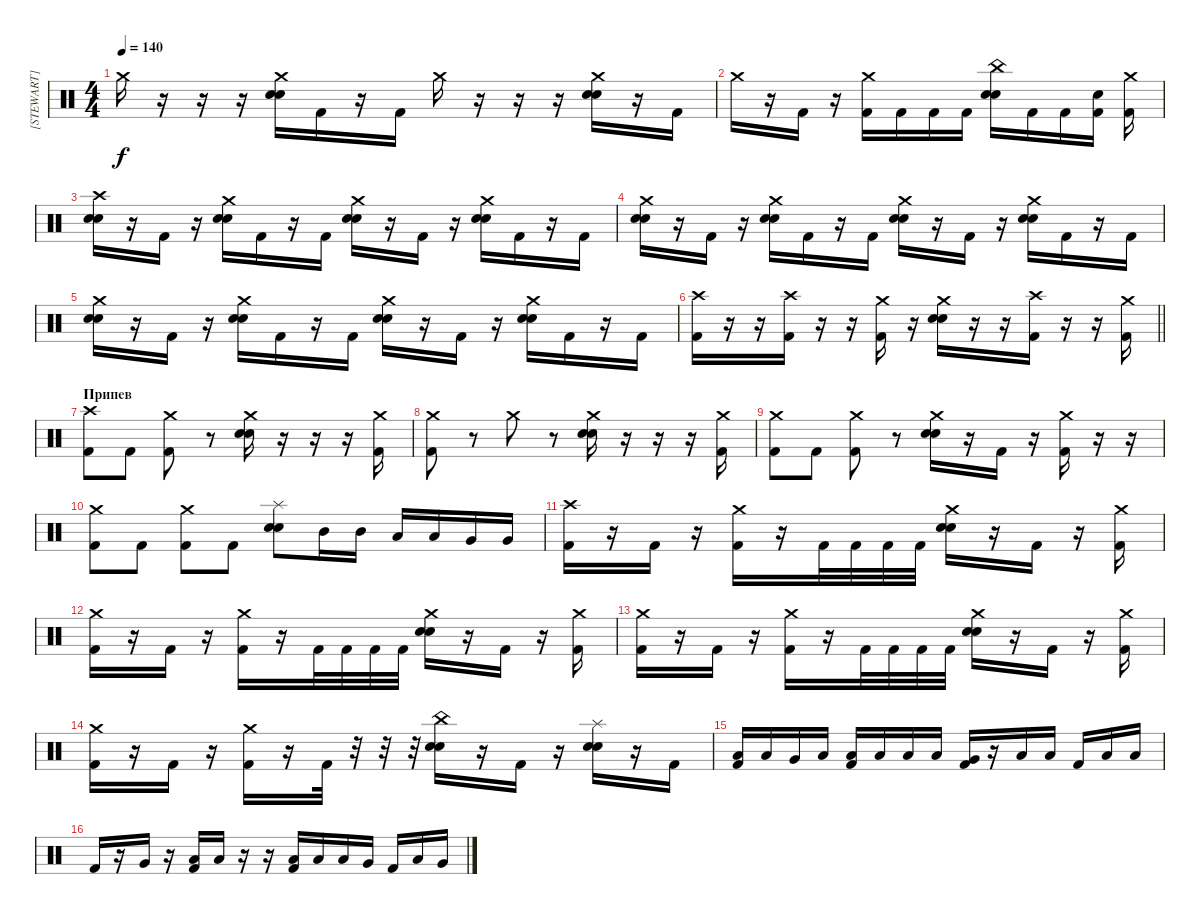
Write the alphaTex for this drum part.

\track ("[STEWART]" "[STEWART]") {instrument percussion}
\staff {score}
\articulation defaults
\ts (4 4)
\tempo 140
\clef neutral
\ks c "Crash medium (hit)".16{dy f}
r.16 r.16 r.16 ("Crash medium (hit)" "Electric Snare (hit)" "Snare (hit) 2").16 "Kick (hit) 2".16 r.16 "Kick (hit) 2".16 "Crash medium (hit)".16 r.16 r.16 r.16 ("Crash medium (hit)" "Electric Snare (hit)" "Snare (hit) 2").16 r.16 "Kick (hit) 2".16 |
"Crash medium (hit)".16 r.16 "Kick (hit) 2".16 r.16 ("Crash medium (hit)" "Kick (hit) 2").16 "Kick (hit) 2".16 "Kick (hit) 2".16 "Kick (hit) 2".16 ("China (hit)" "Electric Snare (hit)" "Snare (hit) 2").16 "Kick (hit) 2".16 "Kick (hit) 2".16 ("Snare (hit) 2" "Kick (hit) 2").16 ("Crash medium (hit)" "Kick (hit) 2").16 |
("Crash high (hit)" "Electric Snare (hit)" "Snare (hit) 2").16 r.16 "Kick (hit) 2".16 r.16 ("Crash medium (hit)" "Electric Snare (hit)" "Snare (hit) 2").16 "Kick (hit) 2".16 r.16 "Kick (hit) 2".16 ("Crash medium (hit)" "Electric Snare (hit)" "Snare (hit) 2").16 r.16 "Kick (hit) 2".16 r.16 ("Crash medium (hit)" "Electric Snare (hit)" "Snare (hit) 2").16 "Kick (hit) 2".16 r.16 "Kick (hit) 2".16 |
("Crash medium (hit)" "Electric Snare (hit)" "Snare (hit) 2").16 r.16 "Kick (hit) 2".16 r.16 ("Crash medium (hit)" "Electric Snare (hit)" "Snare (hit) 2").16 "Kick (hit) 2".16 r.16 "Kick (hit) 2".16 ("Crash medium (hit)" "Electric Snare (hit)" "Snare (hit) 2").16 r.16 "Kick (hit) 2".16 r.16 ("Crash medium (hit)" "Electric Snare (hit)" "Snare (hit) 2").16 "Kick (hit) 2".16 r.16 "Kick (hit) 2".16 |
("Crash medium (hit)" "Electric Snare (hit)" "Snare (hit) 2").16 r.16 "Kick (hit) 2".16 r.16 ("Crash medium (hit)" "Electric Snare (hit)" "Snare (hit) 2").16 "Kick (hit) 2".16 r.16 "Kick (hit) 2".16 ("Crash medium (hit)" "Electric Snare (hit)" "Snare (hit) 2").16 r.16 "Kick (hit) 2".16 r.16 ("Crash medium (hit)" "Electric Snare (hit)" "Snare (hit) 2").16 "Kick (hit) 2".16 r.16 "Kick (hit) 2".16 |
\barLineRight lightlight
("Crash high (hit)" "Kick (hit) 2").16 r.16 r.16 ("Crash high (hit)" "Kick (hit) 2").16 r.16 r.16 ("Crash medium (hit)" "Kick (hit) 2").16 r.16 ("Crash medium (hit)" "Electric Snare (hit)" "Snare (hit) 2").16 r.16 r.16 ("Crash high (hit)" "Kick (hit) 2").16 r.16 r.16 ("Crash medium (hit)" "Kick (hit) 2").16 |
\section ("" "Припев")
("Crash high (hit)" "Kick (hit) 2").8 "Kick (hit) 2".8 ("Crash medium (hit)" "Kick (hit) 2").8 r.8 ("Crash medium (hit)" "Electric Snare (hit)" "Snare (hit) 2").16 r.16 r.16 r.16 ("Crash medium (hit)" "Kick (hit) 2").16 |
("Crash medium (hit)" "Kick (hit) 2").8 r.8 "Crash medium (hit)".8 r.8 ("Crash medium (hit)" "Electric Snare (hit)" "Snare (hit) 2").16 r.16 r.16 r.16 ("Crash medium (hit)" "Kick (hit) 2").16 |
("Crash medium (hit)" "Kick (hit) 2").8 "Kick (hit) 2".8 ("Crash medium (hit)" "Kick (hit) 2").8 r.8 ("Crash medium (hit)" "Electric Snare (hit)" "Snare (hit) 2").16 r.16 "Kick (hit) 2".16 r.16 ("Crash medium (hit)" "Kick (hit) 2").16 r.16 r.16 |
("Crash medium (hit)" "Kick (hit) 2").8 "Kick (hit) 2".8 ("Crash medium (hit)" "Kick (hit) 2").8 "Kick (hit) 2".8 ("Splash (hit)" "Electric Snare (hit)" "Snare (hit) 2").8 "Mid Tom (hit)".16 "Mid Tom (hit)".16 "Low Tom (hit)".16 "Low Tom (hit)".16 "Very Low Tom (hit)".16 "Very Low Tom (hit)".16 |
("Crash high (hit)" "Kick (hit) 2").16 r.16 "Kick (hit) 2".16 r.16 ("Crash medium (hit)" "Kick (hit) 2").16 r.16 "Kick (hit) 2".32 "Kick (hit) 2".32 "Kick (hit) 2".32 "Kick (hit) 2".32 ("Crash medium (hit)" "Electric Snare (hit)" "Snare (hit) 2").16 r.16 "Kick (hit) 2".16 r.16 ("Crash medium (hit)" "Kick (hit) 2").16 |
("Crash medium (hit)" "Kick (hit) 2").16 r.16 "Kick (hit) 2".16 r.16 ("Crash medium (hit)" "Kick (hit) 2").16 r.16 "Kick (hit) 2".32 "Kick (hit) 2".32 "Kick (hit) 2".32 "Kick (hit) 2".32 ("Crash medium (hit)" "Electric Snare (hit)" "Snare (hit) 2").16 r.16 "Kick (hit) 2".16 r.16 ("Crash medium (hit)" "Kick (hit) 2").16 |
("Crash medium (hit)" "Kick (hit) 2").16 r.16 "Kick (hit) 2".16 r.16 ("Crash medium (hit)" "Kick (hit) 2").16 r.16 "Kick (hit) 2".32 "Kick (hit) 2".32 "Kick (hit) 2".32 "Kick (hit) 2".32 ("Crash medium (hit)" "Electric Snare (hit)" "Snare (hit) 2").16 r.16 "Kick (hit) 2".16 r.16 ("Crash medium (hit)" "Kick (hit) 2").16 |
("Crash medium (hit)" "Kick (hit) 2").16 r.16 "Kick (hit) 2".16 r.16 ("Crash medium (hit)" "Kick (hit) 2").16 r.16 "Kick (hit) 2".32 r.32 r.32 r.32 ("China (hit)" "Electric Snare (hit)" "Snare (hit) 2").16 r.16 "Kick (hit) 2".16 r.16 ("Splash (hit)" "Snare (hit) 2" "Electric Snare (hit)").16 r.16 "Kick (hit) 2".16 |
("Low Floor Tom (hit)" "Kick (hit) 2").16 "Low Floor Tom (hit)".16 "Very Low Tom (hit)".16 "Low Floor Tom (hit)".16 ("Low Floor Tom (hit)" "Kick (hit) 2").16 "Low Floor Tom (hit)".16 "Low Floor Tom (hit)".16 "Low Floor Tom (hit)".16 ("Very Low Tom (hit)" "Kick (hit) 2").16 r.16 "Low Floor Tom (hit)".16 "Low Floor Tom (hit)".16 "Kick (hit) 2".16 "Low Floor Tom (hit)".16 "Low Floor Tom (hit)".16 |
"Kick (hit) 2".16 r.16 "Very Low Tom (hit)".16 r.16 ("Low Floor Tom (hit)" "Kick (hit) 2").16 "Low Floor Tom (hit)".16 r.16 r.16 ("Low Floor Tom (hit)" "Kick (hit) 2").16 "Low Floor Tom (hit)".16 "Low Floor Tom (hit)".16 "Very Low Tom (hit)".16 "Kick (hit) 2".16 "Low Floor Tom (hit)".16 "Very Low Tom (hit)".16
